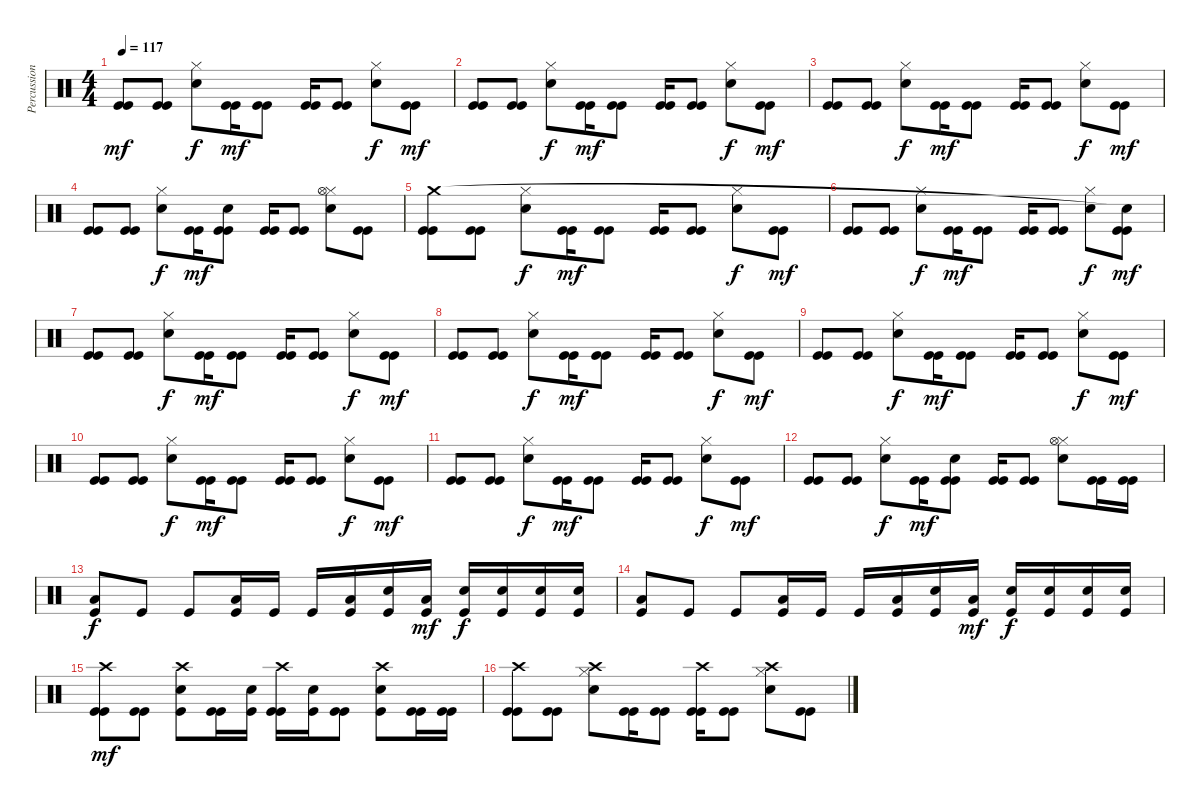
\track ("Percussion" "Percussion") {instrument percussion}
\staff {score}
\articulation defaults
\ts (4 4)
\tempo 117
\clef neutral
\ks c
("Kick (hit)" "Kick (hit)").8{dy mf} ("Kick (hit)" "Kick (hit)").8 ("Electric Snare (hit)" "Hi-Hat (closed)").8{dy f} ("Kick (hit)" "Kick (hit)").16{dy mf} ("Kick (hit)" "Kick (hit)").8 ("Kick (hit)" "Kick (hit)").16 ("Kick (hit)" "Kick (hit)").8 ("Electric Snare (hit)" "Hi-Hat (closed)").8{dy f} ("Kick (hit)" "Kick (hit)").8{dy mf} |
("Kick (hit)" "Kick (hit)").8 ("Kick (hit)" "Kick (hit)").8 ("Electric Snare (hit)" "Hi-Hat (closed)").8{dy f} ("Kick (hit)" "Kick (hit)").16{dy mf} ("Kick (hit)" "Kick (hit)").8 ("Kick (hit)" "Kick (hit)").16 ("Kick (hit)" "Kick (hit)").8 ("Electric Snare (hit)" "Hi-Hat (closed)").8{dy f} ("Kick (hit)" "Kick (hit)").8{dy mf} |
("Kick (hit)" "Kick (hit)").8 ("Kick (hit)" "Kick (hit)").8 ("Electric Snare (hit)" "Hi-Hat (closed)").8{dy f} ("Kick (hit)" "Kick (hit)").16{dy mf} ("Kick (hit)" "Kick (hit)").8 ("Kick (hit)" "Kick (hit)").16 ("Kick (hit)" "Kick (hit)").8 ("Electric Snare (hit)" "Hi-Hat (closed)").8{dy f} ("Kick (hit)" "Kick (hit)").8{dy mf} |
("Kick (hit)" "Kick (hit)").8 ("Kick (hit)" "Kick (hit)").8 ("Electric Snare (hit)" "Hi-Hat (closed)").8{dy f} ("Kick (hit)" "Kick (hit)").16{dy mf} ("Kick (hit)" "Kick (hit)" "Electric Snare (hit)").8 ("Kick (hit)" "Kick (hit)").16 ("Kick (hit)" "Kick (hit)").8 ("Electric Snare (hit)" "Hi-Hat (closed)" "Hi-Hat (open)").8 ("Kick (hit)" "Kick (hit)").8 |
("Kick (hit)" "Kick (hit)" "Crash medium (hit)").8 ("Kick (hit)" "Kick (hit)").8 ("Electric Snare (hit)" "Hi-Hat (closed)").8{dy f} ("Kick (hit)" "Kick (hit)").16{dy mf} ("Kick (hit)" "Kick (hit)").8 ("Kick (hit)" "Kick (hit)").16 ("Kick (hit)" "Kick (hit)").8 ("Electric Snare (hit)" "Hi-Hat (closed)").8{dy f} ("Kick (hit)" "Kick (hit)").8{dy mf} |
("Kick (hit)" "Kick (hit)").8 ("Kick (hit)" "Kick (hit)").8 ("Electric Snare (hit)" "Hi-Hat (closed)").8{dy f} ("Kick (hit)" "Kick (hit)").16{dy mf} ("Kick (hit)" "Kick (hit)").8 ("Kick (hit)" "Kick (hit)").16 ("Kick (hit)" "Kick (hit)").8 ("Electric Snare (hit)" "Hi-Hat (closed)").8{dy f} ("Kick (hit)" "Kick (hit)" "Snare (hit)"{t}).8{dy mf} |
("Kick (hit)" "Kick (hit)").8 ("Kick (hit)" "Kick (hit)").8 ("Electric Snare (hit)" "Hi-Hat (closed)").8{dy f} ("Kick (hit)" "Kick (hit)").16{dy mf} ("Kick (hit)" "Kick (hit)").8 ("Kick (hit)" "Kick (hit)").16 ("Kick (hit)" "Kick (hit)").8 ("Electric Snare (hit)" "Hi-Hat (closed)").8{dy f} ("Kick (hit)" "Kick (hit)").8{dy mf} |
("Kick (hit)" "Kick (hit)").8 ("Kick (hit)" "Kick (hit)").8 ("Electric Snare (hit)" "Hi-Hat (closed)").8{dy f} ("Kick (hit)" "Kick (hit)").16{dy mf} ("Kick (hit)" "Kick (hit)").8 ("Kick (hit)" "Kick (hit)").16 ("Kick (hit)" "Kick (hit)").8 ("Electric Snare (hit)" "Hi-Hat (closed)").8{dy f} ("Kick (hit)" "Kick (hit)").8{dy mf} |
("Kick (hit)" "Kick (hit)").8 ("Kick (hit)" "Kick (hit)").8 ("Electric Snare (hit)" "Hi-Hat (closed)").8{dy f} ("Kick (hit)" "Kick (hit)").16{dy mf} ("Kick (hit)" "Kick (hit)").8 ("Kick (hit)" "Kick (hit)").16 ("Kick (hit)" "Kick (hit)").8 ("Electric Snare (hit)" "Hi-Hat (closed)").8{dy f} ("Kick (hit)" "Kick (hit)").8{dy mf} |
("Kick (hit)" "Kick (hit)").8 ("Kick (hit)" "Kick (hit)").8 ("Electric Snare (hit)" "Hi-Hat (closed)").8{dy f} ("Kick (hit)" "Kick (hit)").16{dy mf} ("Kick (hit)" "Kick (hit)").8 ("Kick (hit)" "Kick (hit)").16 ("Kick (hit)" "Kick (hit)").8 ("Electric Snare (hit)" "Hi-Hat (closed)").8{dy f} ("Kick (hit)" "Kick (hit)").8{dy mf} |
("Kick (hit)" "Kick (hit)").8 ("Kick (hit)" "Kick (hit)").8 ("Electric Snare (hit)" "Hi-Hat (closed)").8{dy f} ("Kick (hit)" "Kick (hit)").16{dy mf} ("Kick (hit)" "Kick (hit)").8 ("Kick (hit)" "Kick (hit)").16 ("Kick (hit)" "Kick (hit)").8 ("Electric Snare (hit)" "Hi-Hat (closed)").8{dy f} ("Kick (hit)" "Kick (hit)").8{dy mf} |
("Kick (hit)" "Kick (hit)").8 ("Kick (hit)" "Kick (hit)").8 ("Electric Snare (hit)" "Hi-Hat (closed)").8{dy f} ("Kick (hit)" "Kick (hit)").16{dy mf} ("Kick (hit)" "Kick (hit)" "Electric Snare (hit)").8 ("Kick (hit)" "Kick (hit)").16 ("Kick (hit)" "Kick (hit)").8 ("Electric Snare (hit)" "Hi-Hat (closed)" "Hi-Hat (open)").8 ("Kick (hit)" "Kick (hit)").16 ("Kick (hit)" "Kick (hit)").16 |
("Kick (hit)" "Low Floor Tom (hit)").8{dy f} "Kick (hit)".8 "Kick (hit)".8 ("Kick (hit)" "Low Floor Tom (hit)").16 "Kick (hit)".16 "Kick (hit)".16 ("Kick (hit)" "Low Floor Tom (hit)").16 ("Kick (hit)" "Electric Snare (hit)").16 ("Kick (hit)" "Low Floor Tom (hit)").16{dy mf} ("Kick (hit)" "Electric Snare (hit)").16{dy f} ("Kick (hit)" "Electric Snare (hit)").16 ("Kick (hit)" "Electric Snare (hit)").16 ("Kick (hit)" "Electric Snare (hit)").16 |
("Kick (hit)" "Low Floor Tom (hit)").8 "Kick (hit)".8 "Kick (hit)".8 ("Kick (hit)" "Low Floor Tom (hit)").16 "Kick (hit)".16 "Kick (hit)".16 ("Kick (hit)" "Low Floor Tom (hit)").16 ("Kick (hit)" "Electric Snare (hit)").16 ("Kick (hit)" "Low Floor Tom (hit)").16{dy mf} ("Kick (hit)" "Electric Snare (hit)").16{dy f} ("Kick (hit)" "Electric Snare (hit)").16 ("Kick (hit)" "Electric Snare (hit)").16 ("Kick (hit)" "Electric Snare (hit)").16 |
("Crash high (hit)" "Kick (hit)" "Kick (hit)").8{dy mf} ("Kick (hit)" "Kick (hit)").8 ("Crash high (hit)" "Kick (hit)" "Electric Snare (hit)").8 ("Kick (hit)" "Kick (hit)").16 ("Kick (hit)" "Electric Snare (hit)").16 ("Crash high (hit)" "Kick (hit)" "Kick (hit)").16 ("Kick (hit)" "Electric Snare (hit)").16 ("Kick (hit)" "Kick (hit)").8 ("Crash high (hit)" "Kick (hit)" "Electric Snare (hit)").8 ("Kick (hit)" "Kick (hit)").16 ("Kick (hit)" "Kick (hit)").16 |
("Kick (hit)" "Kick (hit)" "Crash high (hit)").8 ("Kick (hit)" "Kick (hit)").8 ("Electric Snare (hit)" "Hi-Hat (closed)" "Crash high (hit)").8 ("Kick (hit)" "Kick (hit)").16 ("Kick (hit)" "Kick (hit)").8 ("Kick (hit)" "Kick (hit)" "Crash high (hit)").16 ("Kick (hit)" "Kick (hit)").8 ("Electric Snare (hit)" "Hi-Hat (closed)" "Crash high (hit)").8 ("Kick (hit)" "Kick (hit)").8
